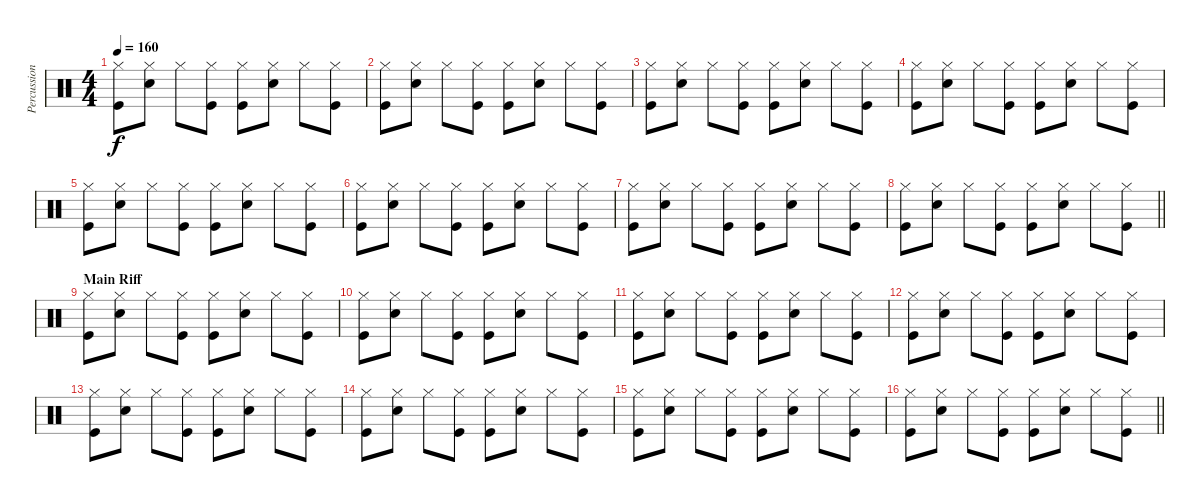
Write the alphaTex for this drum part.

\track ("Percussion" "Percussion") {instrument percussion}
\staff {score}
\articulation defaults
\ts (4 4)
\tempo 160
\clef neutral
\ks c
("Hi-Hat (closed)" "Kick (hit)").8{dy f} ("Hi-Hat (closed)" "Electric Snare (hit)").8 "Hi-Hat (closed)".8 ("Hi-Hat (closed)" "Kick (hit)").8 ("Hi-Hat (closed)" "Kick (hit)").8 ("Hi-Hat (closed)" "Electric Snare (hit)").8 "Hi-Hat (closed)".8 ("Hi-Hat (closed)" "Kick (hit)").8 |
("Hi-Hat (closed)" "Kick (hit)").8 ("Hi-Hat (closed)" "Electric Snare (hit)").8 "Hi-Hat (closed)".8 ("Hi-Hat (closed)" "Kick (hit)").8 ("Hi-Hat (closed)" "Kick (hit)").8 ("Hi-Hat (closed)" "Electric Snare (hit)").8 "Hi-Hat (closed)".8 ("Hi-Hat (closed)" "Kick (hit)").8 |
("Hi-Hat (closed)" "Kick (hit)").8 ("Hi-Hat (closed)" "Electric Snare (hit)").8 "Hi-Hat (closed)".8 ("Hi-Hat (closed)" "Kick (hit)").8 ("Hi-Hat (closed)" "Kick (hit)").8 ("Hi-Hat (closed)" "Electric Snare (hit)").8 "Hi-Hat (closed)".8 ("Hi-Hat (closed)" "Kick (hit)").8 |
("Hi-Hat (closed)" "Kick (hit)").8 ("Hi-Hat (closed)" "Electric Snare (hit)").8 "Hi-Hat (closed)".8 ("Hi-Hat (closed)" "Kick (hit)").8 ("Hi-Hat (closed)" "Kick (hit)").8 ("Hi-Hat (closed)" "Electric Snare (hit)").8 "Hi-Hat (closed)".8 ("Hi-Hat (closed)" "Kick (hit)").8 |
("Hi-Hat (closed)" "Kick (hit)").8 ("Hi-Hat (closed)" "Electric Snare (hit)").8 "Hi-Hat (closed)".8 ("Hi-Hat (closed)" "Kick (hit)").8 ("Hi-Hat (closed)" "Kick (hit)").8 ("Hi-Hat (closed)" "Electric Snare (hit)").8 "Hi-Hat (closed)".8 ("Hi-Hat (closed)" "Kick (hit)").8 |
("Hi-Hat (closed)" "Kick (hit)").8 ("Hi-Hat (closed)" "Electric Snare (hit)").8 "Hi-Hat (closed)".8 ("Hi-Hat (closed)" "Kick (hit)").8 ("Hi-Hat (closed)" "Kick (hit)").8 ("Hi-Hat (closed)" "Electric Snare (hit)").8 "Hi-Hat (closed)".8 ("Hi-Hat (closed)" "Kick (hit)").8 |
("Hi-Hat (closed)" "Kick (hit)").8 ("Hi-Hat (closed)" "Electric Snare (hit)").8 "Hi-Hat (closed)".8 ("Hi-Hat (closed)" "Kick (hit)").8 ("Hi-Hat (closed)" "Kick (hit)").8 ("Hi-Hat (closed)" "Electric Snare (hit)").8 "Hi-Hat (closed)".8 ("Hi-Hat (closed)" "Kick (hit)").8 |
\barLineRight lightlight
("Hi-Hat (closed)" "Kick (hit)").8 ("Hi-Hat (closed)" "Electric Snare (hit)").8 "Hi-Hat (closed)".8 ("Hi-Hat (closed)" "Kick (hit)").8 ("Hi-Hat (closed)" "Kick (hit)").8 ("Hi-Hat (closed)" "Electric Snare (hit)").8 "Hi-Hat (closed)".8 ("Hi-Hat (closed)" "Kick (hit)").8 |
\section ("" "Main Riff")
("Hi-Hat (closed)" "Kick (hit)").8 ("Hi-Hat (closed)" "Electric Snare (hit)").8 "Hi-Hat (closed)".8 ("Hi-Hat (closed)" "Kick (hit)").8 ("Hi-Hat (closed)" "Kick (hit)").8 ("Hi-Hat (closed)" "Electric Snare (hit)").8 "Hi-Hat (closed)".8 ("Hi-Hat (closed)" "Kick (hit)").8 |
("Hi-Hat (closed)" "Kick (hit)").8 ("Hi-Hat (closed)" "Electric Snare (hit)").8 "Hi-Hat (closed)".8 ("Hi-Hat (closed)" "Kick (hit)").8 ("Hi-Hat (closed)" "Kick (hit)").8 ("Hi-Hat (closed)" "Electric Snare (hit)").8 "Hi-Hat (closed)".8 ("Hi-Hat (closed)" "Kick (hit)").8 |
("Hi-Hat (closed)" "Kick (hit)").8 ("Hi-Hat (closed)" "Electric Snare (hit)").8 "Hi-Hat (closed)".8 ("Hi-Hat (closed)" "Kick (hit)").8 ("Hi-Hat (closed)" "Kick (hit)").8 ("Hi-Hat (closed)" "Electric Snare (hit)").8 "Hi-Hat (closed)".8 ("Hi-Hat (closed)" "Kick (hit)").8 |
("Hi-Hat (closed)" "Kick (hit)").8 ("Hi-Hat (closed)" "Electric Snare (hit)").8 "Hi-Hat (closed)".8 ("Hi-Hat (closed)" "Kick (hit)").8 ("Hi-Hat (closed)" "Kick (hit)").8 ("Hi-Hat (closed)" "Electric Snare (hit)").8 "Hi-Hat (closed)".8 ("Hi-Hat (closed)" "Kick (hit)").8 |
("Hi-Hat (closed)" "Kick (hit)").8 ("Hi-Hat (closed)" "Electric Snare (hit)").8 "Hi-Hat (closed)".8 ("Hi-Hat (closed)" "Kick (hit)").8 ("Hi-Hat (closed)" "Kick (hit)").8 ("Hi-Hat (closed)" "Electric Snare (hit)").8 "Hi-Hat (closed)".8 ("Hi-Hat (closed)" "Kick (hit)").8 |
("Hi-Hat (closed)" "Kick (hit)").8 ("Hi-Hat (closed)" "Electric Snare (hit)").8 "Hi-Hat (closed)".8 ("Hi-Hat (closed)" "Kick (hit)").8 ("Hi-Hat (closed)" "Kick (hit)").8 ("Hi-Hat (closed)" "Electric Snare (hit)").8 "Hi-Hat (closed)".8 ("Hi-Hat (closed)" "Kick (hit)").8 |
("Hi-Hat (closed)" "Kick (hit)").8 ("Hi-Hat (closed)" "Electric Snare (hit)").8 "Hi-Hat (closed)".8 ("Hi-Hat (closed)" "Kick (hit)").8 ("Hi-Hat (closed)" "Kick (hit)").8 ("Hi-Hat (closed)" "Electric Snare (hit)").8 "Hi-Hat (closed)".8 ("Hi-Hat (closed)" "Kick (hit)").8 |
\barLineRight lightlight
("Hi-Hat (closed)" "Kick (hit)").8 ("Hi-Hat (closed)" "Electric Snare (hit)").8 "Hi-Hat (closed)".8 ("Hi-Hat (closed)" "Kick (hit)").8 ("Hi-Hat (closed)" "Kick (hit)").8 ("Hi-Hat (closed)" "Electric Snare (hit)").8 "Hi-Hat (closed)".8 ("Hi-Hat (closed)" "Kick (hit)").8
